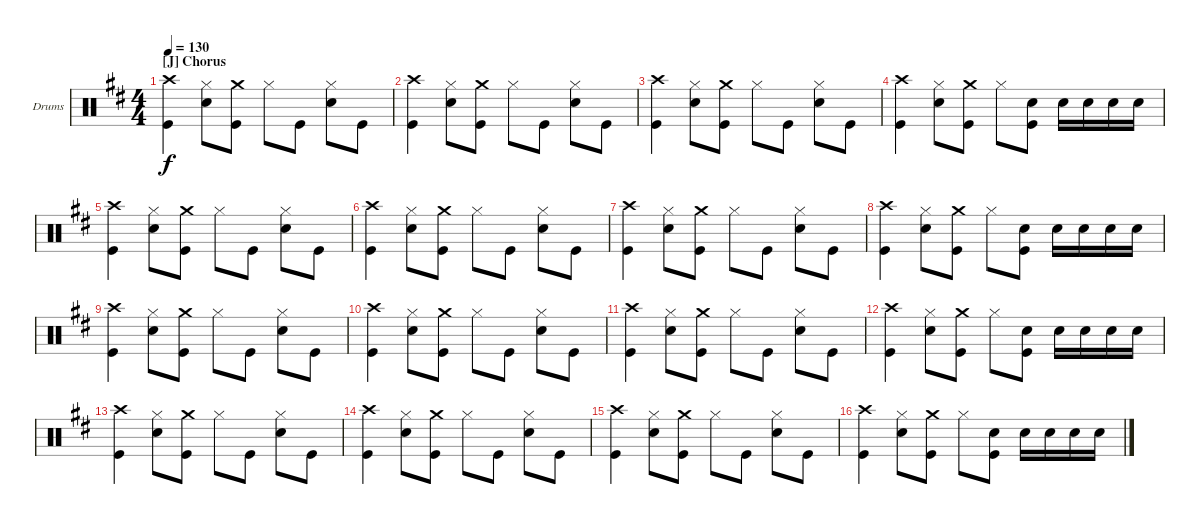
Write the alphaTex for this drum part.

\defaultSystemsLayout 4
\bracketExtendMode groupsimilarinstruments
\firstSystemTrackNameOrientation horizontal
\otherSystemsTrackNameOrientation horizontal
\track ("Drums" "Drums") {instrument percussion}
\staff {score}
\articulation defaults
\ts (4 4)
\section ("J" "Chorus")
\tempo 130
\clef neutral
\scale
1.05044
\ks d
("Crash high (hit)" "Kick (hit)").4{dy f} ("Hi-Hat (closed)" "Snare (hit) 2").8 ("Crash medium (hit)" "Kick (hit)").8 "Hi-Hat (closed)".8 "Kick (hit)".8 ("Hi-Hat (closed)" "Snare (hit) 2").8 "Kick (hit)".8 |
\scale
0.949559 ("Crash high (hit)" "Kick (hit)").4 ("Hi-Hat (closed)" "Snare (hit) 2").8 ("Crash medium (hit)" "Kick (hit)").8 "Hi-Hat (closed)".8 "Kick (hit)".8 ("Hi-Hat (closed)" "Snare (hit) 2").8 "Kick (hit)".8 |
\scale
1.05044 ("Crash high (hit)" "Kick (hit)").4 ("Hi-Hat (closed)" "Snare (hit) 2").8 ("Crash medium (hit)" "Kick (hit)").8 "Hi-Hat (closed)".8 "Kick (hit)".8 ("Hi-Hat (closed)" "Snare (hit) 2").8 "Kick (hit)".8 |
\scale
0.949559 ("Crash high (hit)" "Kick (hit)").4 ("Hi-Hat (closed)" "Snare (hit) 2").8 ("Crash medium (hit)" "Kick (hit)").8 "Hi-Hat (closed)".8 ("Snare (hit) 2" "Kick (hit)").8 "Snare (hit) 2".16 "Snare (hit) 2".16 "Snare (hit) 2".16 "Snare (hit) 2".16 |
\scale
1.05044 ("Crash high (hit)" "Kick (hit)").4 ("Hi-Hat (closed)" "Snare (hit) 2").8 ("Crash medium (hit)" "Kick (hit)").8 "Hi-Hat (closed)".8 "Kick (hit)".8 ("Hi-Hat (closed)" "Snare (hit) 2").8 "Kick (hit)".8 |
\scale
0.949559 ("Crash high (hit)" "Kick (hit)").4 ("Hi-Hat (closed)" "Snare (hit) 2").8 ("Crash medium (hit)" "Kick (hit)").8 "Hi-Hat (closed)".8 "Kick (hit)".8 ("Hi-Hat (closed)" "Snare (hit) 2").8 "Kick (hit)".8 |
\scale
1.05044 ("Crash high (hit)" "Kick (hit)").4 ("Hi-Hat (closed)" "Snare (hit) 2").8 ("Crash medium (hit)" "Kick (hit)").8 "Hi-Hat (closed)".8 "Kick (hit)".8 ("Hi-Hat (closed)" "Snare (hit) 2").8 "Kick (hit)".8 |
\scale
0.949559 ("Crash high (hit)" "Kick (hit)").4 ("Hi-Hat (closed)" "Snare (hit) 2").8 ("Crash medium (hit)" "Kick (hit)").8 "Hi-Hat (closed)".8 ("Snare (hit) 2" "Kick (hit)").8 "Snare (hit) 2".16 "Snare (hit) 2".16 "Snare (hit) 2".16 "Snare (hit) 2".16 |
\scale
1.05044 ("Crash high (hit)" "Kick (hit)").4 ("Hi-Hat (closed)" "Snare (hit) 2").8 ("Crash medium (hit)" "Kick (hit)").8 "Hi-Hat (closed)".8 "Kick (hit)".8 ("Hi-Hat (closed)" "Snare (hit) 2").8 "Kick (hit)".8 |
\scale
0.949559 ("Crash high (hit)" "Kick (hit)").4 ("Hi-Hat (closed)" "Snare (hit) 2").8 ("Crash medium (hit)" "Kick (hit)").8 "Hi-Hat (closed)".8 "Kick (hit)".8 ("Hi-Hat (closed)" "Snare (hit) 2").8 "Kick (hit)".8 |
\scale
1.05044 ("Crash high (hit)" "Kick (hit)").4 ("Hi-Hat (closed)" "Snare (hit) 2").8 ("Crash medium (hit)" "Kick (hit)").8 "Hi-Hat (closed)".8 "Kick (hit)".8 ("Hi-Hat (closed)" "Snare (hit) 2").8 "Kick (hit)".8 |
\scale
0.949559 ("Crash high (hit)" "Kick (hit)").4 ("Hi-Hat (closed)" "Snare (hit) 2").8 ("Crash medium (hit)" "Kick (hit)").8 "Hi-Hat (closed)".8 ("Snare (hit) 2" "Kick (hit)").8 "Snare (hit) 2".16 "Snare (hit) 2".16 "Snare (hit) 2".16 "Snare (hit) 2".16 |
\scale
1.05044 ("Crash high (hit)" "Kick (hit)").4 ("Hi-Hat (closed)" "Snare (hit) 2").8 ("Crash medium (hit)" "Kick (hit)").8 "Hi-Hat (closed)".8 "Kick (hit)".8 ("Hi-Hat (closed)" "Snare (hit) 2").8 "Kick (hit)".8 |
\scale
0.949559 ("Crash high (hit)" "Kick (hit)").4 ("Hi-Hat (closed)" "Snare (hit) 2").8 ("Crash medium (hit)" "Kick (hit)").8 "Hi-Hat (closed)".8 "Kick (hit)".8 ("Hi-Hat (closed)" "Snare (hit) 2").8 "Kick (hit)".8 |
\scale
1.05044 ("Crash high (hit)" "Kick (hit)").4 ("Hi-Hat (closed)" "Snare (hit) 2").8 ("Crash medium (hit)" "Kick (hit)").8 "Hi-Hat (closed)".8 "Kick (hit)".8 ("Hi-Hat (closed)" "Snare (hit) 2").8 "Kick (hit)".8 |
\scale
0.949559 ("Crash high (hit)" "Kick (hit)").4 ("Hi-Hat (closed)" "Snare (hit) 2").8 ("Crash medium (hit)" "Kick (hit)").8 "Hi-Hat (closed)".8 ("Snare (hit) 2" "Kick (hit)").8 "Snare (hit) 2".16 "Snare (hit) 2".16 "Snare (hit) 2".16 "Snare (hit) 2".16
